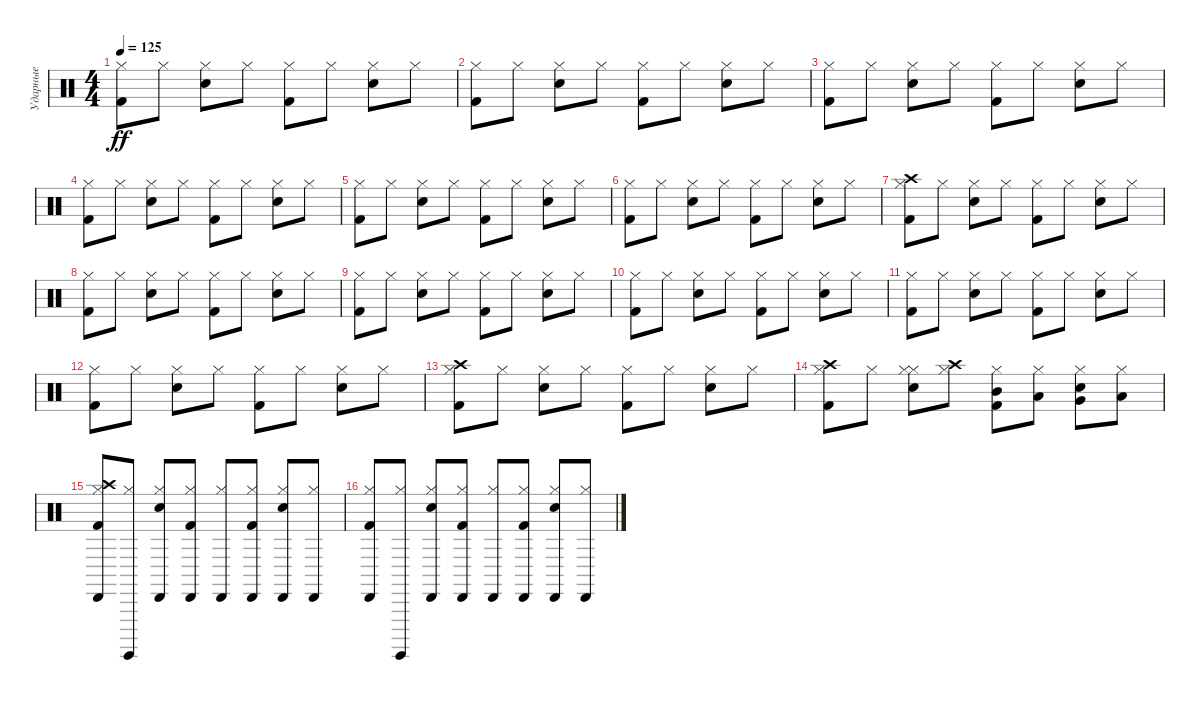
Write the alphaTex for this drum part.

\track ("Ударные" "Ударные") {instrument percussion}
\staff {score}
\articulation defaults
\ts (4 4)
\tempo 125
\clef neutral
\ks c
("Hi-Hat (closed)" "Kick (hit) 2").8{dy ff} "Hi-Hat (closed)".8 ("Hi-Hat (closed)" "Snare (hit) 2").8 "Hi-Hat (closed)".8 ("Hi-Hat (closed)" "Kick (hit) 2").8 "Hi-Hat (closed)".8 ("Hi-Hat (closed)" "Snare (hit) 2").8 "Hi-Hat (closed)".8 |
("Hi-Hat (closed)" "Kick (hit) 2").8 "Hi-Hat (closed)".8 ("Hi-Hat (closed)" "Snare (hit) 2").8 "Hi-Hat (closed)".8 ("Hi-Hat (closed)" "Kick (hit) 2").8 "Hi-Hat (closed)".8 ("Hi-Hat (closed)" "Snare (hit) 2").8 "Hi-Hat (closed)".8 |
("Hi-Hat (closed)" "Kick (hit) 2").8 "Hi-Hat (closed)".8 ("Hi-Hat (closed)" "Snare (hit) 2").8 "Hi-Hat (closed)".8 ("Hi-Hat (closed)" "Kick (hit) 2").8 "Hi-Hat (closed)".8 ("Hi-Hat (closed)" "Snare (hit) 2").8 "Hi-Hat (closed)".8 |
("Hi-Hat (closed)" "Kick (hit) 2").8 "Hi-Hat (closed)".8 ("Hi-Hat (closed)" "Snare (hit) 2").8 "Hi-Hat (closed)".8 ("Hi-Hat (closed)" "Kick (hit) 2").8 "Hi-Hat (closed)".8 ("Hi-Hat (closed)" "Snare (hit) 2").8 "Hi-Hat (closed)".8 |
("Hi-Hat (closed)" "Kick (hit) 2").8 "Hi-Hat (closed)".8 ("Hi-Hat (closed)" "Snare (hit) 2").8 "Hi-Hat (closed)".8 ("Hi-Hat (closed)" "Kick (hit) 2").8 "Hi-Hat (closed)".8 ("Hi-Hat (closed)" "Snare (hit) 2").8 "Hi-Hat (closed)".8 |
("Hi-Hat (closed)" "Kick (hit) 2").8 "Hi-Hat (closed)".8 ("Hi-Hat (closed)" "Snare (hit) 2").8 "Hi-Hat (closed)".8 ("Hi-Hat (closed)" "Kick (hit) 2").8 "Hi-Hat (closed)".8 ("Hi-Hat (closed)" "Snare (hit) 2").8 "Hi-Hat (closed)".8 |
("Crash high (hit)" "Hi-Hat (closed)" "Kick (hit) 2").8 "Hi-Hat (closed)".8 ("Hi-Hat (closed)" "Snare (hit) 2").8 "Hi-Hat (closed)".8 ("Hi-Hat (closed)" "Kick (hit) 2").8 "Hi-Hat (closed)".8 ("Hi-Hat (closed)" "Snare (hit) 2").8 "Hi-Hat (closed)".8 |
("Hi-Hat (closed)" "Kick (hit) 2").8 "Hi-Hat (closed)".8 ("Hi-Hat (closed)" "Snare (hit) 2").8 "Hi-Hat (closed)".8 ("Hi-Hat (closed)" "Kick (hit) 2").8 "Hi-Hat (closed)".8 ("Hi-Hat (closed)" "Snare (hit) 2").8 "Hi-Hat (closed)".8 |
("Hi-Hat (closed)" "Kick (hit) 2").8 "Hi-Hat (closed)".8 ("Hi-Hat (closed)" "Snare (hit) 2").8 "Hi-Hat (closed)".8 ("Hi-Hat (closed)" "Kick (hit) 2").8 "Hi-Hat (closed)".8 ("Hi-Hat (closed)" "Snare (hit) 2").8 "Hi-Hat (closed)".8 |
("Hi-Hat (closed)" "Kick (hit) 2").8 "Hi-Hat (closed)".8 ("Hi-Hat (closed)" "Snare (hit) 2").8 "Hi-Hat (closed)".8 ("Hi-Hat (closed)" "Kick (hit) 2").8 "Hi-Hat (closed)".8 ("Hi-Hat (closed)" "Snare (hit) 2").8 "Hi-Hat (closed)".8 |
("Hi-Hat (closed)" "Kick (hit) 2").8 "Hi-Hat (closed)".8 ("Hi-Hat (closed)" "Snare (hit) 2").8 "Hi-Hat (closed)".8 ("Hi-Hat (closed)" "Kick (hit) 2").8 "Hi-Hat (closed)".8 ("Hi-Hat (closed)" "Snare (hit) 2").8 "Hi-Hat (closed)".8 |
("Hi-Hat (closed)" "Kick (hit) 2").8 "Hi-Hat (closed)".8 ("Hi-Hat (closed)" "Snare (hit) 2").8 "Hi-Hat (closed)".8 ("Hi-Hat (closed)" "Kick (hit) 2").8 "Hi-Hat (closed)".8 ("Hi-Hat (closed)" "Snare (hit) 2").8 "Hi-Hat (closed)".8 |
("Crash high (hit)" "Hi-Hat (closed)" "Kick (hit) 2").8 "Hi-Hat (closed)".8 ("Hi-Hat (closed)" "Snare (hit) 2").8 "Hi-Hat (closed)".8 ("Hi-Hat (closed)" "Kick (hit) 2").8 "Hi-Hat (closed)".8 ("Hi-Hat (closed)" "Snare (hit) 2").8 "Hi-Hat (closed)".8 |
("Crash high (hit)" "Hi-Hat (closed)" "Kick (hit) 2").8 "Hi-Hat (closed)".8 ("Hi-Hat (closed)" "Hi-Hat (closed)" "Snare (hit) 2").8 ("Crash high (hit)" "Hi-Hat (closed)").8 ("Mid Tom (hit)" "Hi-Hat (closed)" "Kick (hit) 2").8 ("Low Tom (hit)" "Hi-Hat (closed)").8 ("Very Low Tom (hit)" "Hi-Hat (closed)" "Snare (hit) 2").8 ("Low Floor Tom (hit)" "Hi-Hat (closed)").8 |
("Crash high (hit)" "Hi-Hat (closed)" "Cabasa (hit)" "Kick (hit) 2").8 ("Hi-Hat (closed)" "Surdo (hit)").8 ("Hi-Hat (closed)" "Cabasa (hit)" "Snare (hit) 2").8 ("Hi-Hat (closed)" "Cabasa (hit)" "Kick (hit) 2").8 ("Hi-Hat (closed)" "Cabasa (hit)").8 ("Hi-Hat (closed)" "Cabasa (hit)" "Kick (hit) 2").8 ("Hi-Hat (closed)" "Cabasa (hit)" "Snare (hit) 2").8 ("Hi-Hat (closed)" "Cabasa (hit)").8 |
("Hi-Hat (closed)" "Cabasa (hit)" "Kick (hit) 2").8 ("Hi-Hat (closed)" "Surdo (hit)").8 ("Hi-Hat (closed)" "Cabasa (hit)" "Snare (hit) 2").8 ("Hi-Hat (closed)" "Cabasa (hit)" "Kick (hit) 2").8 ("Hi-Hat (closed)" "Cabasa (hit)").8 ("Hi-Hat (closed)" "Cabasa (hit)" "Kick (hit) 2").8 ("Hi-Hat (closed)" "Cabasa (hit)" "Snare (hit) 2").8 ("Hi-Hat (closed)" "Cabasa (hit)").8
